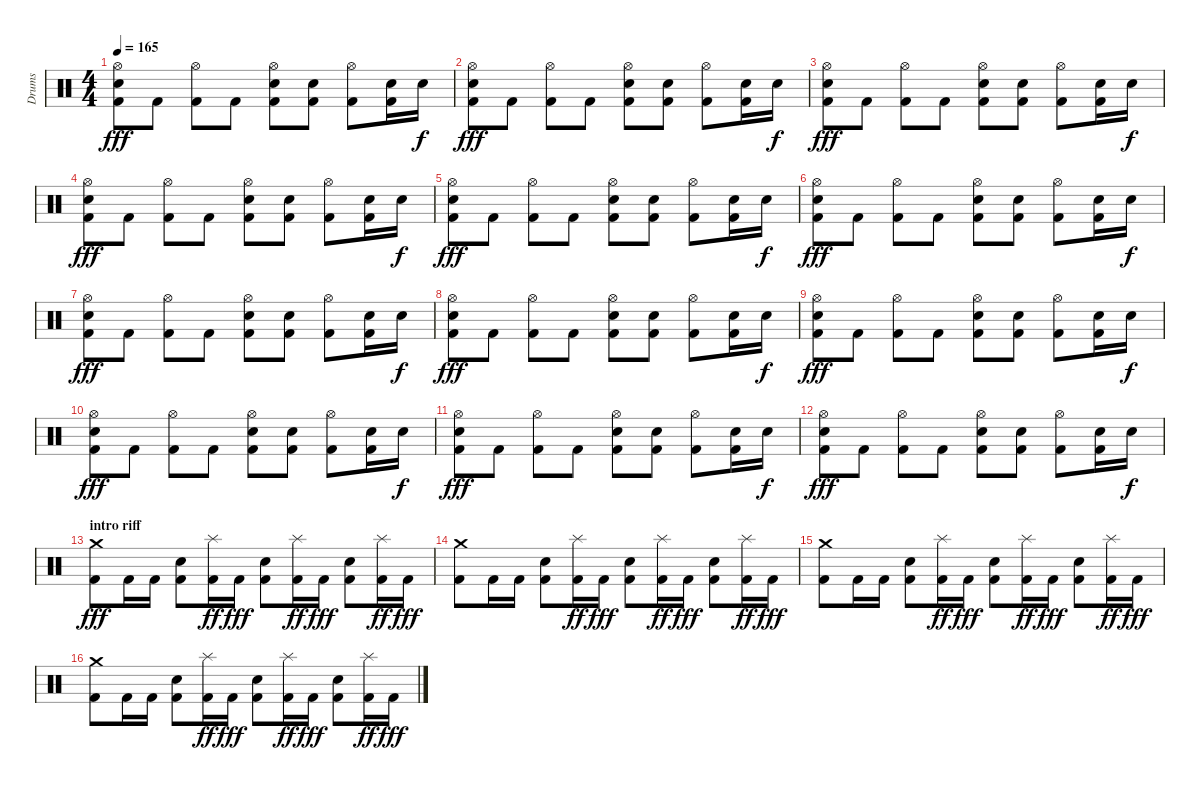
\track ("Drums" "Drums") {instrument percussion}
\staff {score}
\articulation defaults
\ts (4 4)
\tempo 165
\clef neutral
\ks c
("Hi-Hat (open)" "Electric Snare (hit)" "Kick (hit) 2").8{dy fff} "Kick (hit) 2".8 ("Hi-Hat (open)" "Kick (hit) 2").8 "Kick (hit) 2".8 ("Hi-Hat (open)" "Electric Snare (hit)" "Kick (hit) 2").8 ("Electric Snare (hit)" "Kick (hit) 2").8 ("Hi-Hat (open)" "Kick (hit) 2").8 ("Electric Snare (hit)" "Kick (hit) 2").16 "Electric Snare (hit)".16{dy f} |
("Hi-Hat (open)" "Electric Snare (hit)" "Kick (hit) 2").8{dy fff} "Kick (hit) 2".8 ("Hi-Hat (open)" "Kick (hit) 2").8 "Kick (hit) 2".8 ("Hi-Hat (open)" "Electric Snare (hit)" "Kick (hit) 2").8 ("Electric Snare (hit)" "Kick (hit) 2").8 ("Hi-Hat (open)" "Kick (hit) 2").8 ("Electric Snare (hit)" "Kick (hit) 2").16 "Electric Snare (hit)".16{dy f} |
("Hi-Hat (open)" "Electric Snare (hit)" "Kick (hit) 2").8{dy fff} "Kick (hit) 2".8 ("Hi-Hat (open)" "Kick (hit) 2").8 "Kick (hit) 2".8 ("Hi-Hat (open)" "Electric Snare (hit)" "Kick (hit) 2").8 ("Electric Snare (hit)" "Kick (hit) 2").8 ("Hi-Hat (open)" "Kick (hit) 2").8 ("Electric Snare (hit)" "Kick (hit) 2").16 "Electric Snare (hit)".16{dy f} |
("Hi-Hat (open)" "Electric Snare (hit)" "Kick (hit) 2").8{dy fff} "Kick (hit) 2".8 ("Hi-Hat (open)" "Kick (hit) 2").8 "Kick (hit) 2".8 ("Hi-Hat (open)" "Electric Snare (hit)" "Kick (hit) 2").8 ("Electric Snare (hit)" "Kick (hit) 2").8 ("Hi-Hat (open)" "Kick (hit) 2").8 ("Electric Snare (hit)" "Kick (hit) 2").16 "Electric Snare (hit)".16{dy f} |
("Hi-Hat (open)" "Electric Snare (hit)" "Kick (hit) 2").8{dy fff} "Kick (hit) 2".8 ("Hi-Hat (open)" "Kick (hit) 2").8 "Kick (hit) 2".8 ("Hi-Hat (open)" "Electric Snare (hit)" "Kick (hit) 2").8 ("Electric Snare (hit)" "Kick (hit) 2").8 ("Hi-Hat (open)" "Kick (hit) 2").8 ("Electric Snare (hit)" "Kick (hit) 2").16 "Electric Snare (hit)".16{dy f} |
("Hi-Hat (open)" "Electric Snare (hit)" "Kick (hit) 2").8{dy fff} "Kick (hit) 2".8 ("Hi-Hat (open)" "Kick (hit) 2").8 "Kick (hit) 2".8 ("Hi-Hat (open)" "Electric Snare (hit)" "Kick (hit) 2").8 ("Electric Snare (hit)" "Kick (hit) 2").8 ("Hi-Hat (open)" "Kick (hit) 2").8 ("Electric Snare (hit)" "Kick (hit) 2").16 "Electric Snare (hit)".16{dy f} |
("Hi-Hat (open)" "Electric Snare (hit)" "Kick (hit) 2").8{dy fff} "Kick (hit) 2".8 ("Hi-Hat (open)" "Kick (hit) 2").8 "Kick (hit) 2".8 ("Hi-Hat (open)" "Electric Snare (hit)" "Kick (hit) 2").8 ("Electric Snare (hit)" "Kick (hit) 2").8 ("Hi-Hat (open)" "Kick (hit) 2").8 ("Electric Snare (hit)" "Kick (hit) 2").16 "Electric Snare (hit)".16{dy f} |
("Hi-Hat (open)" "Electric Snare (hit)" "Kick (hit) 2").8{dy fff} "Kick (hit) 2".8 ("Hi-Hat (open)" "Kick (hit) 2").8 "Kick (hit) 2".8 ("Hi-Hat (open)" "Electric Snare (hit)" "Kick (hit) 2").8 ("Electric Snare (hit)" "Kick (hit) 2").8 ("Hi-Hat (open)" "Kick (hit) 2").8 ("Electric Snare (hit)" "Kick (hit) 2").16 "Electric Snare (hit)".16{dy f} |
("Hi-Hat (open)" "Electric Snare (hit)" "Kick (hit) 2").8{dy fff} "Kick (hit) 2".8 ("Hi-Hat (open)" "Kick (hit) 2").8 "Kick (hit) 2".8 ("Hi-Hat (open)" "Electric Snare (hit)" "Kick (hit) 2").8 ("Electric Snare (hit)" "Kick (hit) 2").8 ("Hi-Hat (open)" "Kick (hit) 2").8 ("Electric Snare (hit)" "Kick (hit) 2").16 "Electric Snare (hit)".16{dy f} |
("Hi-Hat (open)" "Electric Snare (hit)" "Kick (hit) 2").8{dy fff} "Kick (hit) 2".8 ("Hi-Hat (open)" "Kick (hit) 2").8 "Kick (hit) 2".8 ("Hi-Hat (open)" "Electric Snare (hit)" "Kick (hit) 2").8 ("Electric Snare (hit)" "Kick (hit) 2").8 ("Hi-Hat (open)" "Kick (hit) 2").8 ("Electric Snare (hit)" "Kick (hit) 2").16 "Electric Snare (hit)".16{dy f} |
("Hi-Hat (open)" "Electric Snare (hit)" "Kick (hit) 2").8{dy fff} "Kick (hit) 2".8 ("Hi-Hat (open)" "Kick (hit) 2").8 "Kick (hit) 2".8 ("Hi-Hat (open)" "Electric Snare (hit)" "Kick (hit) 2").8 ("Electric Snare (hit)" "Kick (hit) 2").8 ("Hi-Hat (open)" "Kick (hit) 2").8 ("Electric Snare (hit)" "Kick (hit) 2").16 "Electric Snare (hit)".16{dy f} |
("Hi-Hat (open)" "Electric Snare (hit)" "Kick (hit) 2").8{dy fff} "Kick (hit) 2".8 ("Hi-Hat (open)" "Kick (hit) 2").8 "Kick (hit) 2".8 ("Hi-Hat (open)" "Electric Snare (hit)" "Kick (hit) 2").8 ("Electric Snare (hit)" "Kick (hit) 2").8 ("Hi-Hat (open)" "Kick (hit) 2").8 ("Electric Snare (hit)" "Kick (hit) 2").16 "Electric Snare (hit)".16{dy f} |
\section ("" "intro riff")
("Kick (hit) 2" "Crash medium (hit)").8{dy fff} "Kick (hit) 2".16 "Kick (hit) 2".16 ("Kick (hit) 2" "Electric Snare (hit)").8 ("Kick (hit) 2" "Splash (hit)").16{dy ff} "Kick (hit) 2".16{dy fff} ("Kick (hit) 2" "Electric Snare (hit)").8 ("Kick (hit) 2" "Splash (hit)").16{dy ff} "Kick (hit) 2".16{dy fff} ("Kick (hit) 2" "Electric Snare (hit)").8 ("Kick (hit) 2" "Splash (hit)").16{dy ff} "Kick (hit) 2".16{dy fff} |
("Kick (hit) 2" "Crash medium (hit)").8 "Kick (hit) 2".16 "Kick (hit) 2".16 ("Kick (hit) 2" "Electric Snare (hit)").8 ("Kick (hit) 2" "Splash (hit)").16{dy ff} "Kick (hit) 2".16{dy fff} ("Kick (hit) 2" "Electric Snare (hit)").8 ("Kick (hit) 2" "Splash (hit)").16{dy ff} "Kick (hit) 2".16{dy fff} ("Kick (hit) 2" "Electric Snare (hit)").8 ("Kick (hit) 2" "Splash (hit)").16{dy ff} "Kick (hit) 2".16{dy fff} |
("Kick (hit) 2" "Crash medium (hit)").8 "Kick (hit) 2".16 "Kick (hit) 2".16 ("Kick (hit) 2" "Electric Snare (hit)").8 ("Kick (hit) 2" "Splash (hit)").16{dy ff} "Kick (hit) 2".16{dy fff} ("Kick (hit) 2" "Electric Snare (hit)").8 ("Kick (hit) 2" "Splash (hit)").16{dy ff} "Kick (hit) 2".16{dy fff} ("Kick (hit) 2" "Electric Snare (hit)").8 ("Kick (hit) 2" "Splash (hit)").16{dy ff} "Kick (hit) 2".16{dy fff} |
("Kick (hit) 2" "Crash medium (hit)").8 "Kick (hit) 2".16 "Kick (hit) 2".16 ("Kick (hit) 2" "Electric Snare (hit)").8 ("Kick (hit) 2" "Splash (hit)").16{dy ff} "Kick (hit) 2".16{dy fff} ("Kick (hit) 2" "Electric Snare (hit)").8 ("Kick (hit) 2" "Splash (hit)").16{dy ff} "Kick (hit) 2".16{dy fff} ("Kick (hit) 2" "Electric Snare (hit)").8 ("Kick (hit) 2" "Splash (hit)").16{dy ff} "Kick (hit) 2".16{dy fff}
